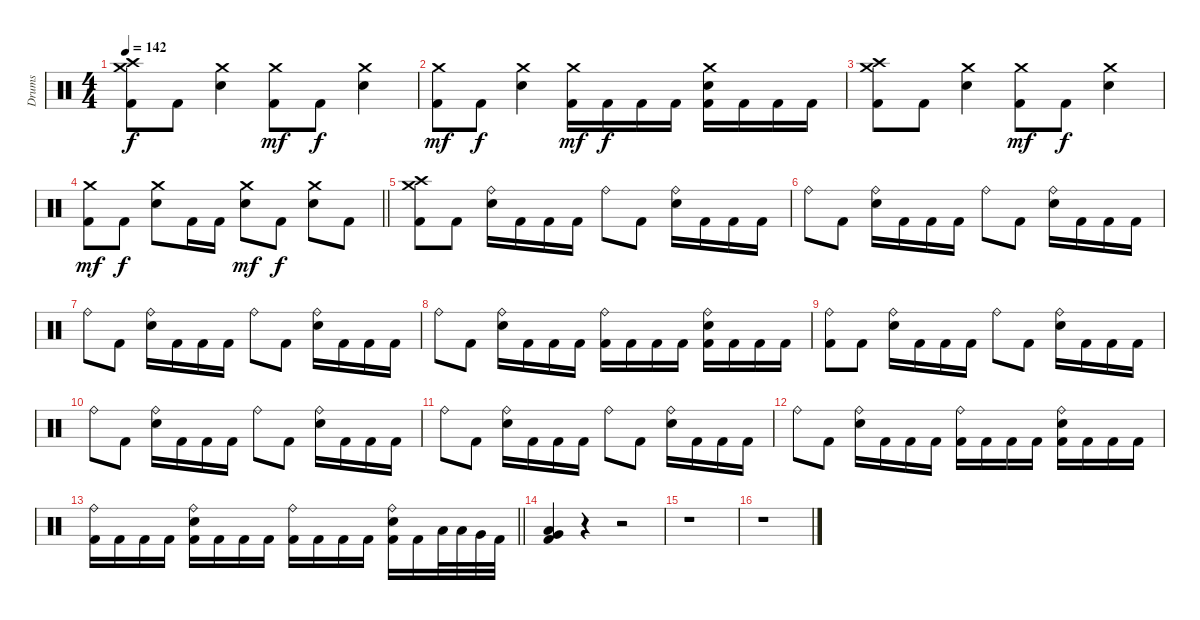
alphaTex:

\track ("Drums" "Drums") {instrument percussion}
\staff {score}
\articulation defaults
\ts (4 4)
\tempo 142
\clef neutral
\ks c
("Crash medium (hit)" "Crash high (hit)" "Kick (hit) 2").8{dy f} "Kick (hit) 2".8 ("Crash medium (hit)" "Electric Snare (hit)").4 ("Crash medium (hit)" "Kick (hit) 2").8{dy mf} "Kick (hit) 2".8{dy f} ("Crash medium (hit)" "Electric Snare (hit)").4 |
("Crash medium (hit)" "Kick (hit) 2").8{dy mf} "Kick (hit) 2".8{dy f} ("Crash medium (hit)" "Electric Snare (hit)").4 ("Crash medium (hit)" "Kick (hit) 2").16{dy mf} "Kick (hit) 2".16{dy f} "Kick (hit) 2".16 "Kick (hit) 2".16 ("Crash medium (hit)" "Electric Snare (hit)" "Kick (hit) 2").16 "Kick (hit) 2".16 "Kick (hit) 2".16 "Kick (hit) 2".16 |
("Crash medium (hit)" "Crash high (hit)" "Kick (hit) 2").8 "Kick (hit) 2".8 ("Crash medium (hit)" "Electric Snare (hit)").4 ("Crash medium (hit)" "Kick (hit) 2").8{dy mf} "Kick (hit) 2".8{dy f} ("Crash medium (hit)" "Electric Snare (hit)").4 |
\barLineRight lightlight
("Crash medium (hit)" "Kick (hit) 2").8{dy mf} "Kick (hit) 2".8{dy f} ("Crash medium (hit)" "Electric Snare (hit)").8 "Kick (hit) 2".16 "Kick (hit) 2".16 ("Crash medium (hit)" "Electric Snare (hit)").8{dy mf} "Kick (hit) 2".8{dy f} ("Crash medium (hit)" "Electric Snare (hit)").8 "Kick (hit) 2".8 |
("Crash high (hit)" "Crash medium (hit)" "Kick (hit) 2").8 "Kick (hit) 2".8 ("Ride (bell)" "Electric Snare (hit)").16 "Kick (hit) 2".16 "Kick (hit) 2".16 "Kick (hit) 2".16 "Ride (bell)".8 "Kick (hit) 2".8 ("Ride (bell)" "Electric Snare (hit)").16 "Kick (hit) 2".16 "Kick (hit) 2".16 "Kick (hit) 2".16 |
"Ride (bell)".8 "Kick (hit) 2".8 ("Ride (bell)" "Electric Snare (hit)").16 "Kick (hit) 2".16 "Kick (hit) 2".16 "Kick (hit) 2".16 "Ride (bell)".8 "Kick (hit) 2".8 ("Ride (bell)" "Electric Snare (hit)").16 "Kick (hit) 2".16 "Kick (hit) 2".16 "Kick (hit) 2".16 |
"Ride (bell)".8 "Kick (hit) 2".8 ("Ride (bell)" "Electric Snare (hit)").16 "Kick (hit) 2".16 "Kick (hit) 2".16 "Kick (hit) 2".16 "Ride (bell)".8 "Kick (hit) 2".8 ("Ride (bell)" "Electric Snare (hit)").16 "Kick (hit) 2".16 "Kick (hit) 2".16 "Kick (hit) 2".16 |
"Ride (bell)".8 "Kick (hit) 2".8 ("Ride (bell)" "Electric Snare (hit)").16 "Kick (hit) 2".16 "Kick (hit) 2".16 "Kick (hit) 2".16 ("Ride (bell)" "Kick (hit) 2").16 "Kick (hit) 2".16 "Kick (hit) 2".16 "Kick (hit) 2".16 ("Ride (bell)" "Electric Snare (hit)" "Kick (hit) 2").16 "Kick (hit) 2".16 "Kick (hit) 2".16 "Kick (hit) 2".16 |
("Ride (bell)" "Kick (hit) 2").8 "Kick (hit) 2".8 ("Ride (bell)" "Electric Snare (hit)").16 "Kick (hit) 2".16 "Kick (hit) 2".16 "Kick (hit) 2".16 "Ride (bell)".8 "Kick (hit) 2".8 ("Ride (bell)" "Electric Snare (hit)").16 "Kick (hit) 2".16 "Kick (hit) 2".16 "Kick (hit) 2".16 |
"Ride (bell)".8 "Kick (hit) 2".8 ("Ride (bell)" "Electric Snare (hit)").16 "Kick (hit) 2".16 "Kick (hit) 2".16 "Kick (hit) 2".16 "Ride (bell)".8 "Kick (hit) 2".8 ("Ride (bell)" "Electric Snare (hit)").16 "Kick (hit) 2".16 "Kick (hit) 2".16 "Kick (hit) 2".16 |
"Ride (bell)".8 "Kick (hit) 2".8 ("Ride (bell)" "Electric Snare (hit)").16 "Kick (hit) 2".16 "Kick (hit) 2".16 "Kick (hit) 2".16 "Ride (bell)".8 "Kick (hit) 2".8 ("Ride (bell)" "Electric Snare (hit)").16 "Kick (hit) 2".16 "Kick (hit) 2".16 "Kick (hit) 2".16 |
"Ride (bell)".8 "Kick (hit) 2".8 ("Ride (bell)" "Electric Snare (hit)").16 "Kick (hit) 2".16 "Kick (hit) 2".16 "Kick (hit) 2".16 ("Ride (bell)" "Kick (hit) 2").16 "Kick (hit) 2".16 "Kick (hit) 2".16 "Kick (hit) 2".16 ("Ride (bell)" "Electric Snare (hit)" "Kick (hit) 2").16 "Kick (hit) 2".16 "Kick (hit) 2".16 "Kick (hit) 2".16 |
\barLineRight lightlight
("Ride (bell)" "Kick (hit) 2").16 "Kick (hit) 2".16 "Kick (hit) 2".16 "Kick (hit) 2".16 ("Ride (bell)" "Electric Snare (hit)" "Kick (hit) 2").16 "Kick (hit) 2".16 "Kick (hit) 2".16 "Kick (hit) 2".16 ("Ride (bell)" "Kick (hit) 2").16 "Kick (hit) 2".16 "Kick (hit) 2".16 "Kick (hit) 2".16 ("Ride (bell)" "Electric Snare (hit)" "Kick (hit) 2").16 "Kick (hit) 2".16 "Low Tom (hit)".32 "Low Tom (hit)".32 "Very Low Tom (hit)".32 "Kick (hit) 2".32 |
("Low Tom (hit)" "Very Low Tom (hit)" "Kick (hit) 2").4 r.4 r.2 |
r.1 |
r.1
